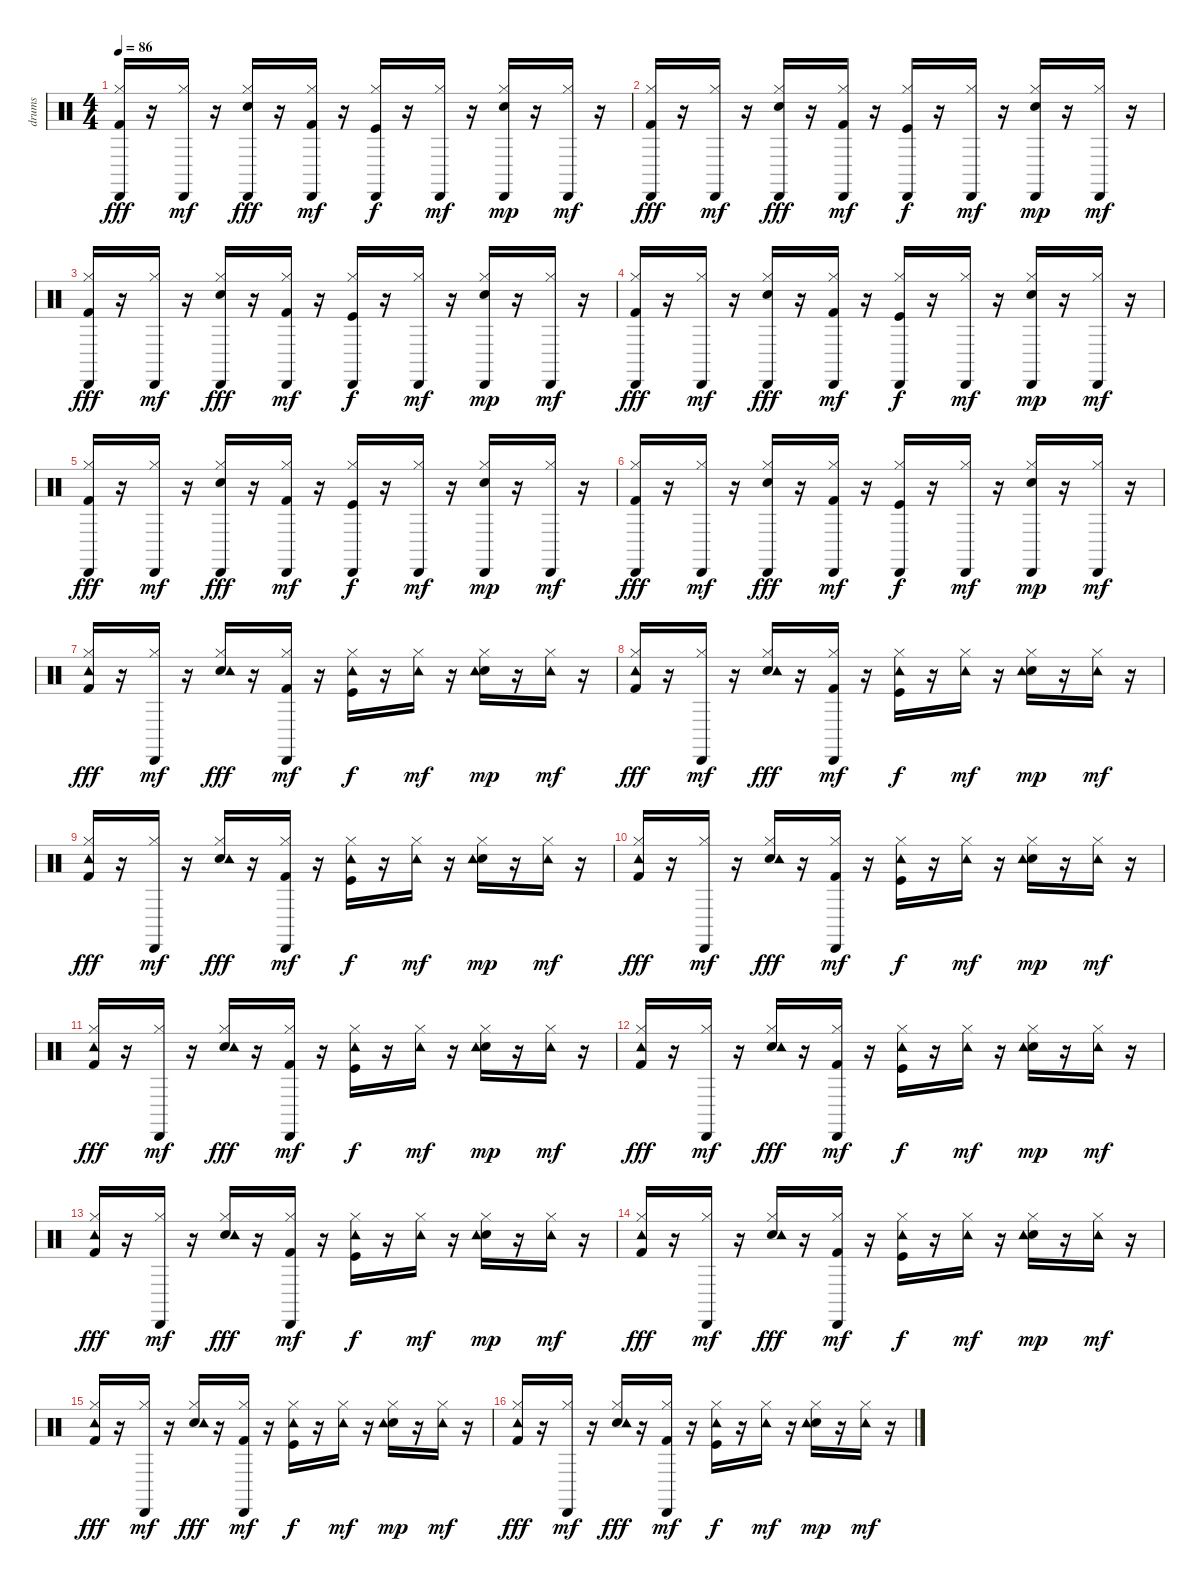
\track ("drums" "drums") {instrument percussion}
\staff {score}
\articulation defaults
\ts (4 4)
\tempo 86
\clef neutral
\ks c
("Kick (hit) 2" "Hi-Hat (closed)" "Cabasa (hit)").16{dy fff} r.16 ("Hi-Hat (closed)" "Cabasa (hit)").16{dy mf} r.16 ("Snare (hit) 2" "Hi-Hat (closed)" "Cabasa (hit)").16{dy fff} r.16 ("Kick (hit) 2" "Hi-Hat (closed)" "Cabasa (hit)").16{dy mf} r.16 ("Kick (hit)" "Hi-Hat (closed)" "Cabasa (hit)").16{dy f} r.16 ("Hi-Hat (closed)" "Cabasa (hit)").16{dy mf} r.16 ("Snare (hit) 2" "Hi-Hat (closed)" "Cabasa (hit)").16{dy mp} r.16 ("Hi-Hat (closed)" "Cabasa (hit)").16{dy mf} r.16 |
("Kick (hit) 2" "Hi-Hat (closed)" "Cabasa (hit)").16{dy fff} r.16 ("Hi-Hat (closed)" "Cabasa (hit)").16{dy mf} r.16 ("Snare (hit) 2" "Hi-Hat (closed)" "Cabasa (hit)").16{dy fff} r.16 ("Kick (hit) 2" "Hi-Hat (closed)" "Cabasa (hit)").16{dy mf} r.16 ("Kick (hit)" "Hi-Hat (closed)" "Cabasa (hit)").16{dy f} r.16 ("Hi-Hat (closed)" "Cabasa (hit)").16{dy mf} r.16 ("Snare (hit) 2" "Hi-Hat (closed)" "Cabasa (hit)").16{dy mp} r.16 ("Hi-Hat (closed)" "Cabasa (hit)").16{dy mf} r.16 |
("Kick (hit) 2" "Hi-Hat (closed)" "Cabasa (hit)").16{dy fff} r.16 ("Hi-Hat (closed)" "Cabasa (hit)").16{dy mf} r.16 ("Snare (hit) 2" "Hi-Hat (closed)" "Cabasa (hit)").16{dy fff} r.16 ("Kick (hit) 2" "Hi-Hat (closed)" "Cabasa (hit)").16{dy mf} r.16 ("Kick (hit)" "Hi-Hat (closed)" "Cabasa (hit)").16{dy f} r.16 ("Hi-Hat (closed)" "Cabasa (hit)").16{dy mf} r.16 ("Snare (hit) 2" "Hi-Hat (closed)" "Cabasa (hit)").16{dy mp} r.16 ("Hi-Hat (closed)" "Cabasa (hit)").16{dy mf} r.16 |
("Kick (hit) 2" "Hi-Hat (closed)" "Cabasa (hit)").16{dy fff} r.16 ("Hi-Hat (closed)" "Cabasa (hit)").16{dy mf} r.16 ("Snare (hit) 2" "Hi-Hat (closed)" "Cabasa (hit)").16{dy fff} r.16 ("Kick (hit) 2" "Hi-Hat (closed)" "Cabasa (hit)").16{dy mf} r.16 ("Kick (hit)" "Hi-Hat (closed)" "Cabasa (hit)").16{dy f} r.16 ("Hi-Hat (closed)" "Cabasa (hit)").16{dy mf} r.16 ("Snare (hit) 2" "Hi-Hat (closed)" "Cabasa (hit)").16{dy mp} r.16 ("Hi-Hat (closed)" "Cabasa (hit)").16{dy mf} r.16 |
("Kick (hit) 2" "Hi-Hat (closed)" "Cabasa (hit)").16{dy fff} r.16 ("Hi-Hat (closed)" "Cabasa (hit)").16{dy mf} r.16 ("Snare (hit) 2" "Hi-Hat (closed)" "Cabasa (hit)").16{dy fff} r.16 ("Kick (hit) 2" "Hi-Hat (closed)" "Cabasa (hit)").16{dy mf} r.16 ("Kick (hit)" "Hi-Hat (closed)" "Cabasa (hit)").16{dy f} r.16 ("Hi-Hat (closed)" "Cabasa (hit)").16{dy mf} r.16 ("Snare (hit) 2" "Hi-Hat (closed)" "Cabasa (hit)").16{dy mp} r.16 ("Hi-Hat (closed)" "Cabasa (hit)").16{dy mf} r.16 |
("Kick (hit) 2" "Hi-Hat (closed)" "Cabasa (hit)").16{dy fff} r.16 ("Hi-Hat (closed)" "Cabasa (hit)").16{dy mf} r.16 ("Snare (hit) 2" "Hi-Hat (closed)" "Cabasa (hit)").16{dy fff} r.16 ("Kick (hit) 2" "Hi-Hat (closed)" "Cabasa (hit)").16{dy mf} r.16 ("Kick (hit)" "Hi-Hat (closed)" "Cabasa (hit)").16{dy f} r.16 ("Hi-Hat (closed)" "Cabasa (hit)").16{dy mf} r.16 ("Snare (hit) 2" "Hi-Hat (closed)" "Cabasa (hit)").16{dy mp} r.16 ("Hi-Hat (closed)" "Cabasa (hit)").16{dy mf} r.16 |
("Kick (hit) 2" "Hi-Hat (closed)" "Tambourine (hit)").16{dy fff} r.16 ("Hi-Hat (closed)" "Cabasa (hit)").16{dy mf} r.16 ("Snare (hit) 2" "Hi-Hat (closed)" "Tambourine (hit)").16{dy fff} r.16 ("Kick (hit) 2" "Hi-Hat (closed)" "Cabasa (hit)").16{dy mf} r.16 ("Kick (hit)" "Hi-Hat (closed)" "Tambourine (hit)").16{dy f} r.16 ("Hi-Hat (closed)" "Tambourine (hit)").16{dy mf} r.16 ("Snare (hit) 2" "Hi-Hat (closed)" "Tambourine (hit)").16{dy mp} r.16 ("Hi-Hat (closed)" "Tambourine (hit)").16{dy mf} r.16 |
("Kick (hit) 2" "Hi-Hat (closed)" "Tambourine (hit)").16{dy fff} r.16 ("Hi-Hat (closed)" "Cabasa (hit)").16{dy mf} r.16 ("Snare (hit) 2" "Hi-Hat (closed)" "Tambourine (hit)").16{dy fff} r.16 ("Kick (hit) 2" "Hi-Hat (closed)" "Cabasa (hit)").16{dy mf} r.16 ("Kick (hit)" "Hi-Hat (closed)" "Tambourine (hit)").16{dy f} r.16 ("Hi-Hat (closed)" "Tambourine (hit)").16{dy mf} r.16 ("Snare (hit) 2" "Hi-Hat (closed)" "Tambourine (hit)").16{dy mp} r.16 ("Hi-Hat (closed)" "Tambourine (hit)").16{dy mf} r.16 |
("Kick (hit) 2" "Hi-Hat (closed)" "Tambourine (hit)").16{dy fff} r.16 ("Hi-Hat (closed)" "Cabasa (hit)").16{dy mf} r.16 ("Snare (hit) 2" "Hi-Hat (closed)" "Tambourine (hit)").16{dy fff} r.16 ("Kick (hit) 2" "Hi-Hat (closed)" "Cabasa (hit)").16{dy mf} r.16 ("Kick (hit)" "Hi-Hat (closed)" "Tambourine (hit)").16{dy f} r.16 ("Hi-Hat (closed)" "Tambourine (hit)").16{dy mf} r.16 ("Snare (hit) 2" "Hi-Hat (closed)" "Tambourine (hit)").16{dy mp} r.16 ("Hi-Hat (closed)" "Tambourine (hit)").16{dy mf} r.16 |
("Kick (hit) 2" "Hi-Hat (closed)" "Tambourine (hit)").16{dy fff} r.16 ("Hi-Hat (closed)" "Cabasa (hit)").16{dy mf} r.16 ("Snare (hit) 2" "Hi-Hat (closed)" "Tambourine (hit)").16{dy fff} r.16 ("Kick (hit) 2" "Hi-Hat (closed)" "Cabasa (hit)").16{dy mf} r.16 ("Kick (hit)" "Hi-Hat (closed)" "Tambourine (hit)").16{dy f} r.16 ("Hi-Hat (closed)" "Tambourine (hit)").16{dy mf} r.16 ("Snare (hit) 2" "Hi-Hat (closed)" "Tambourine (hit)").16{dy mp} r.16 ("Hi-Hat (closed)" "Tambourine (hit)").16{dy mf} r.16 |
("Kick (hit) 2" "Hi-Hat (closed)" "Tambourine (hit)").16{dy fff} r.16 ("Hi-Hat (closed)" "Cabasa (hit)").16{dy mf} r.16 ("Snare (hit) 2" "Hi-Hat (closed)" "Tambourine (hit)").16{dy fff} r.16 ("Kick (hit) 2" "Hi-Hat (closed)" "Cabasa (hit)").16{dy mf} r.16 ("Kick (hit)" "Hi-Hat (closed)" "Tambourine (hit)").16{dy f} r.16 ("Hi-Hat (closed)" "Tambourine (hit)").16{dy mf} r.16 ("Snare (hit) 2" "Hi-Hat (closed)" "Tambourine (hit)").16{dy mp} r.16 ("Hi-Hat (closed)" "Tambourine (hit)").16{dy mf} r.16 |
("Kick (hit) 2" "Hi-Hat (closed)" "Tambourine (hit)").16{dy fff} r.16 ("Hi-Hat (closed)" "Cabasa (hit)").16{dy mf} r.16 ("Snare (hit) 2" "Hi-Hat (closed)" "Tambourine (hit)").16{dy fff} r.16 ("Kick (hit) 2" "Hi-Hat (closed)" "Cabasa (hit)").16{dy mf} r.16 ("Kick (hit)" "Hi-Hat (closed)" "Tambourine (hit)").16{dy f} r.16 ("Hi-Hat (closed)" "Tambourine (hit)").16{dy mf} r.16 ("Snare (hit) 2" "Hi-Hat (closed)" "Tambourine (hit)").16{dy mp} r.16 ("Hi-Hat (closed)" "Tambourine (hit)").16{dy mf} r.16 |
("Kick (hit) 2" "Hi-Hat (closed)" "Tambourine (hit)").16{dy fff} r.16 ("Hi-Hat (closed)" "Cabasa (hit)").16{dy mf} r.16 ("Snare (hit) 2" "Hi-Hat (closed)" "Tambourine (hit)").16{dy fff} r.16 ("Kick (hit) 2" "Hi-Hat (closed)" "Cabasa (hit)").16{dy mf} r.16 ("Kick (hit)" "Hi-Hat (closed)" "Tambourine (hit)").16{dy f} r.16 ("Hi-Hat (closed)" "Tambourine (hit)").16{dy mf} r.16 ("Snare (hit) 2" "Hi-Hat (closed)" "Tambourine (hit)").16{dy mp} r.16 ("Hi-Hat (closed)" "Tambourine (hit)").16{dy mf} r.16 |
("Kick (hit) 2" "Hi-Hat (closed)" "Tambourine (hit)").16{dy fff} r.16 ("Hi-Hat (closed)" "Cabasa (hit)").16{dy mf} r.16 ("Snare (hit) 2" "Hi-Hat (closed)" "Tambourine (hit)").16{dy fff} r.16 ("Kick (hit) 2" "Hi-Hat (closed)" "Cabasa (hit)").16{dy mf} r.16 ("Kick (hit)" "Hi-Hat (closed)" "Tambourine (hit)").16{dy f} r.16 ("Hi-Hat (closed)" "Tambourine (hit)").16{dy mf} r.16 ("Snare (hit) 2" "Hi-Hat (closed)" "Tambourine (hit)").16{dy mp} r.16 ("Hi-Hat (closed)" "Tambourine (hit)").16{dy mf} r.16 |
("Kick (hit) 2" "Hi-Hat (closed)" "Tambourine (hit)").16{dy fff} r.16 ("Hi-Hat (closed)" "Cabasa (hit)").16{dy mf} r.16 ("Snare (hit) 2" "Hi-Hat (closed)" "Tambourine (hit)").16{dy fff} r.16 ("Kick (hit) 2" "Hi-Hat (closed)" "Cabasa (hit)").16{dy mf} r.16 ("Kick (hit)" "Hi-Hat (closed)" "Tambourine (hit)").16{dy f} r.16 ("Hi-Hat (closed)" "Tambourine (hit)").16{dy mf} r.16 ("Snare (hit) 2" "Hi-Hat (closed)" "Tambourine (hit)").16{dy mp} r.16 ("Hi-Hat (closed)" "Tambourine (hit)").16{dy mf} r.16 |
("Kick (hit) 2" "Hi-Hat (closed)" "Tambourine (hit)").16{dy fff} r.16 ("Hi-Hat (closed)" "Cabasa (hit)").16{dy mf} r.16 ("Snare (hit) 2" "Hi-Hat (closed)" "Tambourine (hit)").16{dy fff} r.16 ("Kick (hit) 2" "Hi-Hat (closed)" "Cabasa (hit)").16{dy mf} r.16 ("Kick (hit)" "Hi-Hat (closed)" "Tambourine (hit)").16{dy f} r.16 ("Hi-Hat (closed)" "Tambourine (hit)").16{dy mf} r.16 ("Snare (hit) 2" "Hi-Hat (closed)" "Tambourine (hit)").16{dy mp} r.16 ("Hi-Hat (closed)" "Tambourine (hit)").16{dy mf} r.16
